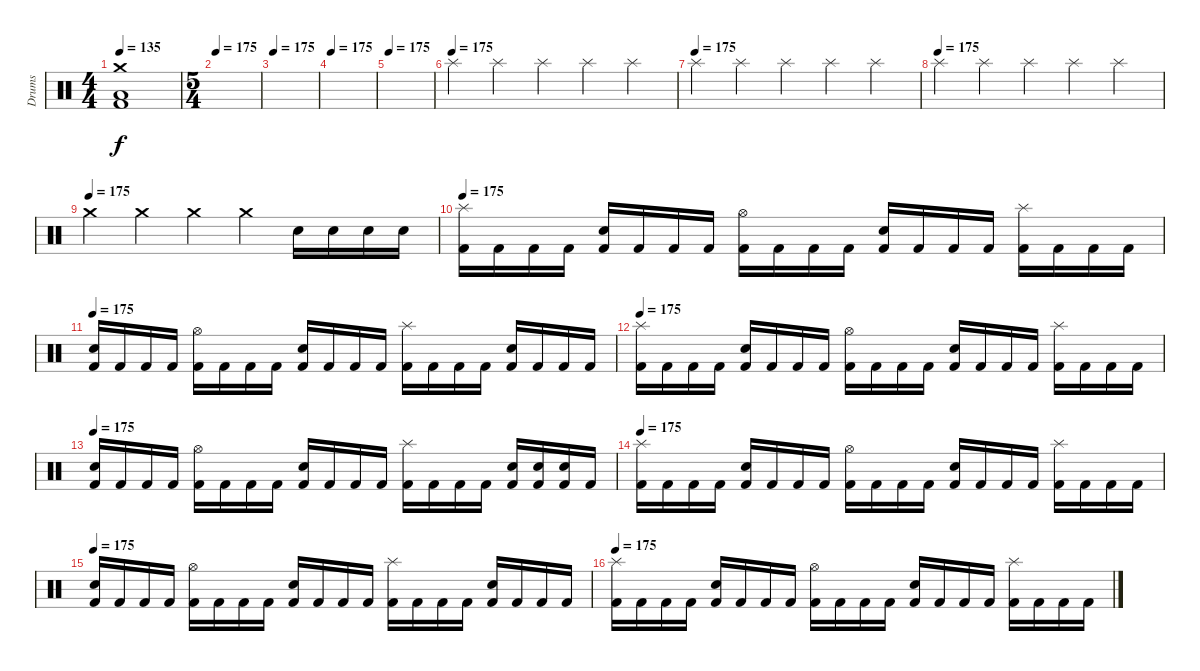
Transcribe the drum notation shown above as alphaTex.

\track ("Drums" "Drums") {instrument percussion}
\staff {score}
\articulation defaults
\ts (4 4)
\tempo 135
\clef neutral
\ks c
("Crash medium (hit)" "Low Floor Tom (hit)" "Kick (hit) 2").1{dy f} |
\ts (5 4)
\tempo 175
|
\tempo 175
|
\tempo 175
|
\tempo 175
|
\tempo (175)
"Splash (hit)".4 "Splash (hit)".4 "Splash (hit)".4 "Splash (hit)".4 "Splash (hit)".4 |
\tempo (175)
"Splash (hit)".4 "Splash (hit)".4 "Splash (hit)".4 "Splash (hit)".4 "Splash (hit)".4 |
\tempo (175)
"Splash (hit)".4 "Splash (hit)".4 "Splash (hit)".4 "Splash (hit)".4 "Splash (hit)".4 |
\tempo (175)
"Crash medium (hit)".4 "Crash medium (hit)".4 "Crash medium (hit)".4 "Crash medium (hit)".4 "Electric Snare (hit)".16 "Electric Snare (hit)".16 "Electric Snare (hit)".16 "Electric Snare (hit)".16 |
\tempo 175
("Splash (hit)" "Kick (hit) 2").16 "Kick (hit) 2".16 "Kick (hit) 2".16 "Kick (hit) 2".16 ("Snare (hit) 2" "Kick (hit) 2").16 "Kick (hit) 2".16 "Kick (hit) 2".16 "Kick (hit) 2".16 ("Hi-Hat (open)" "Kick (hit) 2").16 "Kick (hit) 2".16 "Kick (hit) 2".16 "Kick (hit) 2".16 ("Snare (hit) 2" "Kick (hit) 2").16 "Kick (hit) 2".16 "Kick (hit) 2".16 "Kick (hit) 2".16 ("Splash (hit)" "Kick (hit) 2").16 "Kick (hit) 2".16 "Kick (hit) 2".16 "Kick (hit) 2".16 |
\tempo 175
("Snare (hit) 2" "Kick (hit) 2").16 "Kick (hit) 2".16 "Kick (hit) 2".16 "Kick (hit) 2".16 ("Hi-Hat (open)" "Kick (hit) 2").16 "Kick (hit) 2".16 "Kick (hit) 2".16 "Kick (hit) 2".16 ("Snare (hit) 2" "Kick (hit) 2").16 "Kick (hit) 2".16 "Kick (hit) 2".16 "Kick (hit) 2".16 ("Splash (hit)" "Kick (hit) 2").16 "Kick (hit) 2".16 "Kick (hit) 2".16 "Kick (hit) 2".16 ("Snare (hit) 2" "Kick (hit) 2").16 "Kick (hit) 2".16 "Kick (hit) 2".16 "Kick (hit) 2".16 |
\tempo 175
("Splash (hit)" "Kick (hit) 2").16 "Kick (hit) 2".16 "Kick (hit) 2".16 "Kick (hit) 2".16 ("Snare (hit) 2" "Kick (hit) 2").16 "Kick (hit) 2".16 "Kick (hit) 2".16 "Kick (hit) 2".16 ("Hi-Hat (open)" "Kick (hit) 2").16 "Kick (hit) 2".16 "Kick (hit) 2".16 "Kick (hit) 2".16 ("Snare (hit) 2" "Kick (hit) 2").16 "Kick (hit) 2".16 "Kick (hit) 2".16 "Kick (hit) 2".16 ("Splash (hit)" "Kick (hit) 2").16 "Kick (hit) 2".16 "Kick (hit) 2".16 "Kick (hit) 2".16 |
\tempo 175
("Snare (hit) 2" "Kick (hit) 2").16 "Kick (hit) 2".16 "Kick (hit) 2".16 "Kick (hit) 2".16 ("Hi-Hat (open)" "Kick (hit) 2").16 "Kick (hit) 2".16 "Kick (hit) 2".16 "Kick (hit) 2".16 ("Snare (hit) 2" "Kick (hit) 2").16 "Kick (hit) 2".16 "Kick (hit) 2".16 "Kick (hit) 2".16 ("Splash (hit)" "Kick (hit) 2").16 "Kick (hit) 2".16 "Kick (hit) 2".16 "Kick (hit) 2".16 ("Electric Snare (hit)" "Kick (hit) 2").16 ("Electric Snare (hit)" "Kick (hit) 2").16 ("Electric Snare (hit)" "Kick (hit) 2").16 "Kick (hit) 2".16 |
\tempo 175
("Splash (hit)" "Kick (hit) 2").16 "Kick (hit) 2".16 "Kick (hit) 2".16 "Kick (hit) 2".16 ("Snare (hit) 2" "Kick (hit) 2").16 "Kick (hit) 2".16 "Kick (hit) 2".16 "Kick (hit) 2".16 ("Hi-Hat (open)" "Kick (hit) 2").16 "Kick (hit) 2".16 "Kick (hit) 2".16 "Kick (hit) 2".16 ("Snare (hit) 2" "Kick (hit) 2").16 "Kick (hit) 2".16 "Kick (hit) 2".16 "Kick (hit) 2".16 ("Splash (hit)" "Kick (hit) 2").16 "Kick (hit) 2".16 "Kick (hit) 2".16 "Kick (hit) 2".16 |
\tempo 175
("Snare (hit) 2" "Kick (hit) 2").16 "Kick (hit) 2".16 "Kick (hit) 2".16 "Kick (hit) 2".16 ("Hi-Hat (open)" "Kick (hit) 2").16 "Kick (hit) 2".16 "Kick (hit) 2".16 "Kick (hit) 2".16 ("Snare (hit) 2" "Kick (hit) 2").16 "Kick (hit) 2".16 "Kick (hit) 2".16 "Kick (hit) 2".16 ("Splash (hit)" "Kick (hit) 2").16 "Kick (hit) 2".16 "Kick (hit) 2".16 "Kick (hit) 2".16 ("Snare (hit) 2" "Kick (hit) 2").16 "Kick (hit) 2".16 "Kick (hit) 2".16 "Kick (hit) 2".16 |
\tempo 175
("Splash (hit)" "Kick (hit) 2").16 "Kick (hit) 2".16 "Kick (hit) 2".16 "Kick (hit) 2".16 ("Snare (hit) 2" "Kick (hit) 2").16 "Kick (hit) 2".16 "Kick (hit) 2".16 "Kick (hit) 2".16 ("Hi-Hat (open)" "Kick (hit) 2").16 "Kick (hit) 2".16 "Kick (hit) 2".16 "Kick (hit) 2".16 ("Snare (hit) 2" "Kick (hit) 2").16 "Kick (hit) 2".16 "Kick (hit) 2".16 "Kick (hit) 2".16 ("Splash (hit)" "Kick (hit) 2").16 "Kick (hit) 2".16 "Kick (hit) 2".16 "Kick (hit) 2".16
